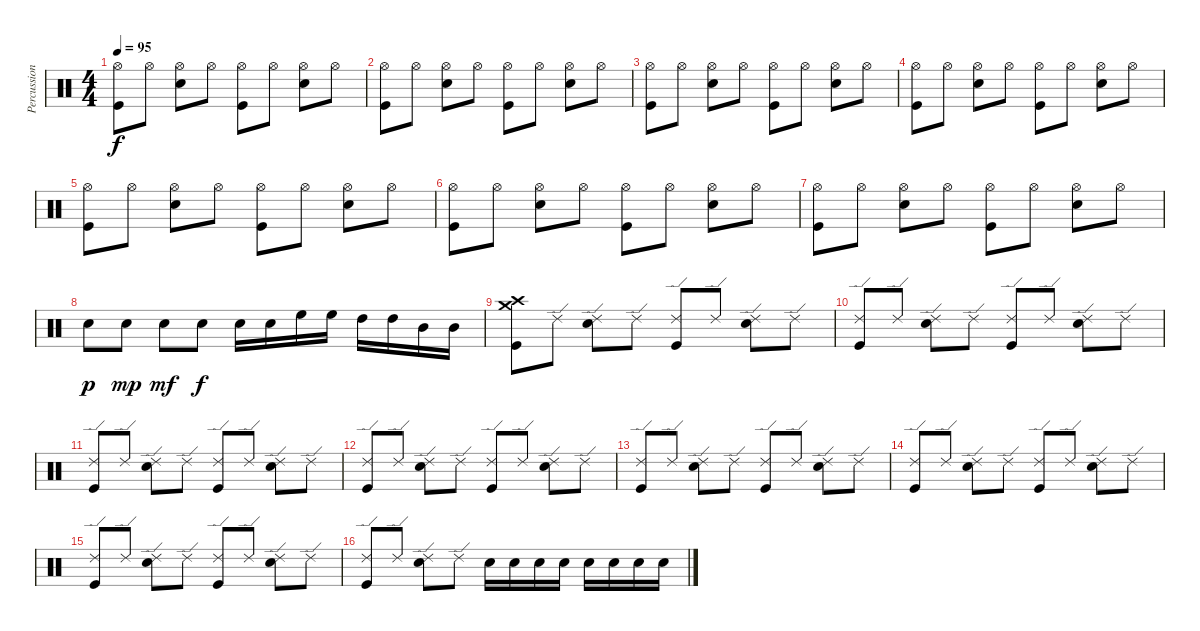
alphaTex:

\track ("Percussion" "Percussion") {instrument percussion}
\staff {score}
\articulation defaults
\ts (4 4)
\tempo 95
\clef neutral
\ks c
("Hi-Hat (open)" "Kick (hit)").8{dy f} "Hi-Hat (open)".8 ("Hi-Hat (open)" "Electric Snare (hit)").8 "Hi-Hat (open)".8 ("Hi-Hat (open)" "Kick (hit)").8 "Hi-Hat (open)".8 ("Hi-Hat (open)" "Electric Snare (hit)").8 "Hi-Hat (open)".8 |
("Hi-Hat (open)" "Kick (hit)").8 "Hi-Hat (open)".8 ("Hi-Hat (open)" "Electric Snare (hit)").8 "Hi-Hat (open)".8 ("Hi-Hat (open)" "Kick (hit)").8 "Hi-Hat (open)".8 ("Hi-Hat (open)" "Electric Snare (hit)").8 "Hi-Hat (open)".8 |
("Hi-Hat (open)" "Kick (hit)").8 "Hi-Hat (open)".8 ("Hi-Hat (open)" "Electric Snare (hit)").8 "Hi-Hat (open)".8 ("Hi-Hat (open)" "Kick (hit)").8 "Hi-Hat (open)".8 ("Hi-Hat (open)" "Electric Snare (hit)").8 "Hi-Hat (open)".8 |
("Hi-Hat (open)" "Kick (hit)").8 "Hi-Hat (open)".8 ("Hi-Hat (open)" "Electric Snare (hit)").8 "Hi-Hat (open)".8 ("Hi-Hat (open)" "Kick (hit)").8 "Hi-Hat (open)".8 ("Hi-Hat (open)" "Electric Snare (hit)").8 "Hi-Hat (open)".8 |
("Hi-Hat (open)" "Kick (hit)").8 "Hi-Hat (open)".8 ("Hi-Hat (open)" "Electric Snare (hit)").8 "Hi-Hat (open)".8 ("Hi-Hat (open)" "Kick (hit)").8 "Hi-Hat (open)".8 ("Hi-Hat (open)" "Electric Snare (hit)").8 "Hi-Hat (open)".8 |
("Hi-Hat (open)" "Kick (hit)").8 "Hi-Hat (open)".8 ("Hi-Hat (open)" "Electric Snare (hit)").8 "Hi-Hat (open)".8 ("Hi-Hat (open)" "Kick (hit)").8 "Hi-Hat (open)".8 ("Hi-Hat (open)" "Electric Snare (hit)").8 "Hi-Hat (open)".8 |
("Hi-Hat (open)" "Kick (hit)").8 "Hi-Hat (open)".8 ("Hi-Hat (open)" "Electric Snare (hit)").8 "Hi-Hat (open)".8 ("Hi-Hat (open)" "Kick (hit)").8 "Hi-Hat (open)".8 ("Hi-Hat (open)" "Electric Snare (hit)").8 "Hi-Hat (open)".8 |
"Electric Snare (hit)".8{dy p} "Electric Snare (hit)".8{dy mp} "Electric Snare (hit)".8{dy mf} "Electric Snare (hit)".8{dy f} "Electric Snare (hit)".16 "Electric Snare (hit)".16 "High Floor Tom (hit)".16 "High Floor Tom (hit)".16 "High Tom (hit)".16 "High Tom (hit)".16 "Mid Tom (hit)".16 "Mid Tom (hit)".16 |
("Crash medium (hit)" "Crash high (hit)" "Kick (hit)").8 "Ride (edge) 2".8 ("Ride (edge) 2" "Electric Snare (hit)").8 "Ride (edge) 2".8 ("Ride (edge) 2" "Kick (hit)").8 "Ride (edge) 2".8 ("Ride (edge) 2" "Electric Snare (hit)").8 "Ride (edge) 2".8 |
("Ride (edge) 2" "Kick (hit)").8 "Ride (edge) 2".8 ("Ride (edge) 2" "Electric Snare (hit)").8 "Ride (edge) 2".8 ("Ride (edge) 2" "Kick (hit)").8 "Ride (edge) 2".8 ("Ride (edge) 2" "Electric Snare (hit)").8 "Ride (edge) 2".8 |
("Ride (edge) 2" "Kick (hit)").8 "Ride (edge) 2".8 ("Ride (edge) 2" "Electric Snare (hit)").8 "Ride (edge) 2".8 ("Ride (edge) 2" "Kick (hit)").8 "Ride (edge) 2".8 ("Ride (edge) 2" "Electric Snare (hit)").8 "Ride (edge) 2".8 |
("Ride (edge) 2" "Kick (hit)").8 "Ride (edge) 2".8 ("Ride (edge) 2" "Electric Snare (hit)").8 "Ride (edge) 2".8 ("Ride (edge) 2" "Kick (hit)").8 "Ride (edge) 2".8 ("Ride (edge) 2" "Electric Snare (hit)").8 "Ride (edge) 2".8 |
("Ride (edge) 2" "Kick (hit)").8 "Ride (edge) 2".8 ("Ride (edge) 2" "Electric Snare (hit)").8 "Ride (edge) 2".8 ("Ride (edge) 2" "Kick (hit)").8 "Ride (edge) 2".8 ("Ride (edge) 2" "Electric Snare (hit)").8 "Ride (edge) 2".8 |
("Ride (edge) 2" "Kick (hit)").8 "Ride (edge) 2".8 ("Ride (edge) 2" "Electric Snare (hit)").8 "Ride (edge) 2".8 ("Ride (edge) 2" "Kick (hit)").8 "Ride (edge) 2".8 ("Ride (edge) 2" "Electric Snare (hit)").8 "Ride (edge) 2".8 |
("Ride (edge) 2" "Kick (hit)").8 "Ride (edge) 2".8 ("Ride (edge) 2" "Electric Snare (hit)").8 "Ride (edge) 2".8 ("Ride (edge) 2" "Kick (hit)").8 "Ride (edge) 2".8 ("Ride (edge) 2" "Electric Snare (hit)").8 "Ride (edge) 2".8 |
("Ride (edge) 2" "Kick (hit)").8 "Ride (edge) 2".8 ("Ride (edge) 2" "Electric Snare (hit)").8 "Ride (edge) 2".8 "Snare (hit) 2".16 "Snare (hit) 2".16 "Snare (hit) 2".16 "Snare (hit) 2".16 "Snare (hit) 2".16 "Snare (hit) 2".16 "Snare (hit) 2".16 "Snare (hit) 2".16
